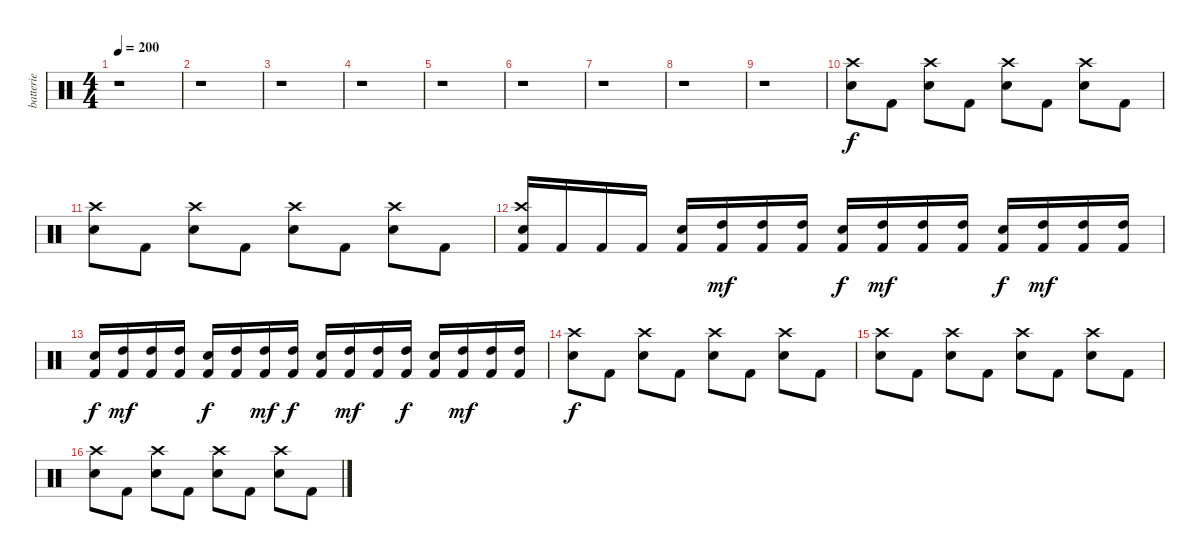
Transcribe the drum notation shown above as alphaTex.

\track ("batterie" "batterie") {instrument percussion}
\staff {score}
\articulation defaults
\ts (4 4)
\tempo 200
\clef neutral
\ks c
r.1{dy f} |
r.1 |
r.1 |
r.1 |
r.1 |
r.1 |
r.1 |
r.1 |
r.1 |
("Electric Snare (hit)" "Crash high (hit)").8 "Kick (hit) 2".8 ("Electric Snare (hit)" "Crash high (hit)").8 "Kick (hit) 2".8 ("Electric Snare (hit)" "Crash high (hit)").8 "Kick (hit) 2".8 ("Electric Snare (hit)" "Crash high (hit)").8 "Kick (hit) 2".8 |
("Electric Snare (hit)" "Crash high (hit)").8 "Kick (hit) 2".8 ("Electric Snare (hit)" "Crash high (hit)").8 "Kick (hit) 2".8 ("Electric Snare (hit)" "Crash high (hit)").8 "Kick (hit) 2".8 ("Electric Snare (hit)" "Crash high (hit)").8 "Kick (hit) 2".8 |
("Kick (hit) 2" "Electric Snare (hit)" "Crash high (hit)").16 "Kick (hit) 2".16 "Kick (hit) 2".16 "Kick (hit) 2".16 ("Kick (hit) 2" "Electric Snare (hit)").16 ("Kick (hit) 2" "High Tom (hit)").16{dy mf} ("Kick (hit) 2" "High Tom (hit)").16 ("Kick (hit) 2" "High Tom (hit)").16 ("Kick (hit) 2" "Electric Snare (hit)").16{dy f} ("Kick (hit) 2" "High Tom (hit)").16{dy mf} ("Kick (hit) 2" "High Tom (hit)").16 ("Kick (hit) 2" "High Tom (hit)").16 ("Kick (hit) 2" "Electric Snare (hit)").16{dy f} ("Kick (hit) 2" "High Tom (hit)").16{dy mf} ("Kick (hit) 2" "High Tom (hit)").16 ("Kick (hit) 2" "High Tom (hit)").16 |
("Kick (hit) 2" "Electric Snare (hit)").16{dy f} ("Kick (hit) 2" "High Tom (hit)").16{dy mf} ("Kick (hit) 2" "High Tom (hit)").16 ("Kick (hit) 2" "High Tom (hit)").16 ("Kick (hit) 2" "Electric Snare (hit)").16{dy f} ("Kick (hit) 2" "High Tom (hit)").16 ("Kick (hit) 2" "High Tom (hit)").16{dy mf} ("Kick (hit) 2" "High Tom (hit)").16{dy f} ("Kick (hit) 2" "Electric Snare (hit)").16 ("Kick (hit) 2" "High Tom (hit)").16{dy mf} ("Kick (hit) 2" "High Tom (hit)").16 ("Kick (hit) 2" "High Tom (hit)").16{dy f} ("Kick (hit) 2" "Electric Snare (hit)").16 ("Kick (hit) 2" "High Tom (hit)").16{dy mf} ("Kick (hit) 2" "High Tom (hit)").16 ("Kick (hit) 2" "High Tom (hit)").16 |
("Electric Snare (hit)" "Crash high (hit)").8{dy f} "Kick (hit) 2".8 ("Electric Snare (hit)" "Crash high (hit)").8 "Kick (hit) 2".8 ("Electric Snare (hit)" "Crash high (hit)").8 "Kick (hit) 2".8 ("Electric Snare (hit)" "Crash high (hit)").8 "Kick (hit) 2".8 |
("Electric Snare (hit)" "Crash high (hit)").8 "Kick (hit) 2".8 ("Electric Snare (hit)" "Crash high (hit)").8 "Kick (hit) 2".8 ("Electric Snare (hit)" "Crash high (hit)").8 "Kick (hit) 2".8 ("Electric Snare (hit)" "Crash high (hit)").8 "Kick (hit) 2".8 |
("Electric Snare (hit)" "Crash high (hit)").8 "Kick (hit) 2".8 ("Electric Snare (hit)" "Crash high (hit)").8 "Kick (hit) 2".8 ("Electric Snare (hit)" "Crash high (hit)").8 "Kick (hit) 2".8 ("Electric Snare (hit)" "Crash high (hit)").8 "Kick (hit) 2".8
